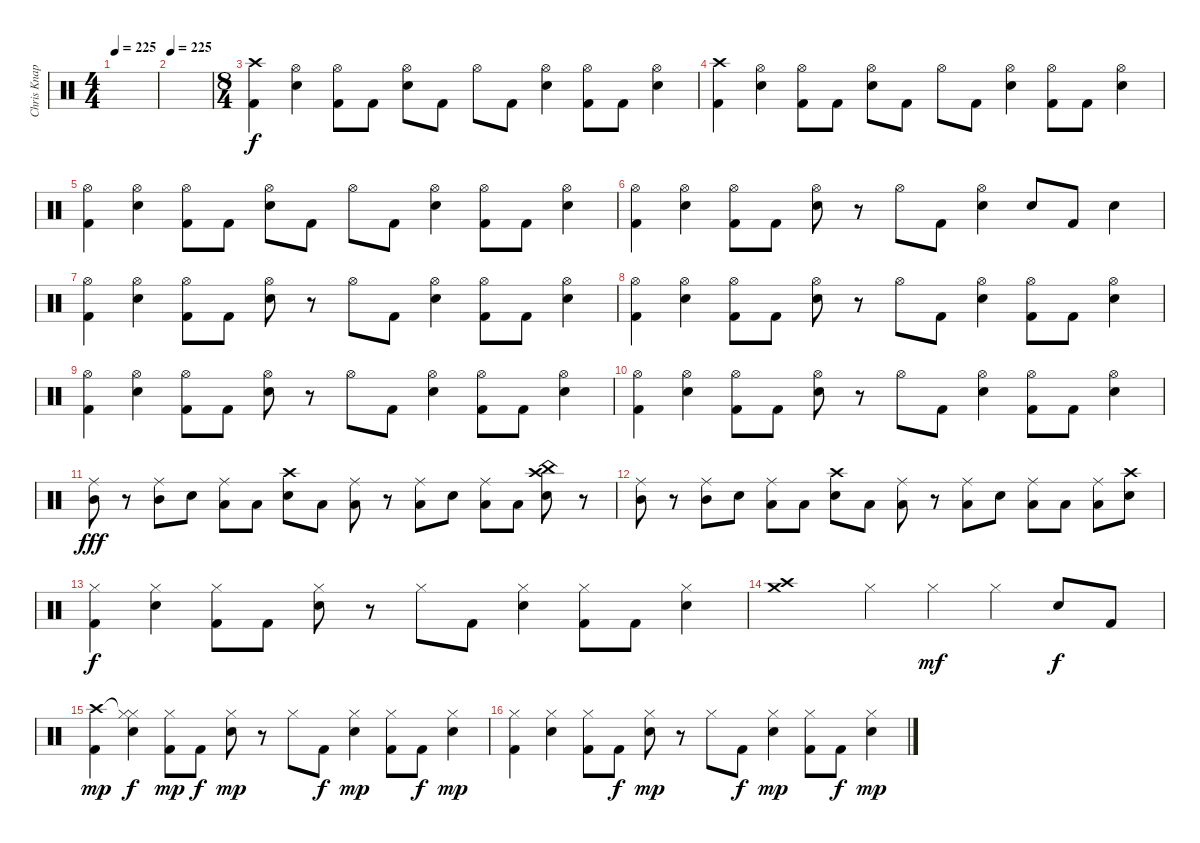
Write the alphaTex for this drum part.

\track ("Chris Knapp" "Chris Knap") {instrument percussion}
\staff {score}
\articulation defaults
\ts (4 4)
\tempo 225
\tempo 110
\tempo 225
\clef neutral
\ks c
|
\tempo 225
|
\ts (8 4)
("Crash high (hit)" "Kick (hit) 2").4 ("Hi-Hat (open)" "Electric Snare (hit)").4 ("Hi-Hat (open)" "Kick (hit) 2").8 "Kick (hit) 2".8 ("Hi-Hat (open)" "Electric Snare (hit)").8 "Kick (hit) 2".8 "Hi-Hat (open)".8 "Kick (hit) 2".8 ("Hi-Hat (open)" "Electric Snare (hit)").4 ("Hi-Hat (open)" "Kick (hit) 2").8 "Kick (hit) 2".8 ("Hi-Hat (open)" "Electric Snare (hit)").4 |
("Crash high (hit)" "Kick (hit) 2").4 ("Hi-Hat (open)" "Electric Snare (hit)").4 ("Hi-Hat (open)" "Kick (hit) 2").8 "Kick (hit) 2".8 ("Hi-Hat (open)" "Electric Snare (hit)").8 "Kick (hit) 2".8 "Hi-Hat (open)".8 "Kick (hit) 2".8 ("Hi-Hat (open)" "Electric Snare (hit)").4 ("Hi-Hat (open)" "Kick (hit) 2").8 "Kick (hit) 2".8 ("Hi-Hat (open)" "Electric Snare (hit)").4 |
("Hi-Hat (open)" "Kick (hit) 2").4 ("Hi-Hat (open)" "Electric Snare (hit)").4 ("Hi-Hat (open)" "Kick (hit) 2").8 "Kick (hit) 2".8 ("Hi-Hat (open)" "Electric Snare (hit)").8 "Kick (hit) 2".8 "Hi-Hat (open)".8 "Kick (hit) 2".8 ("Hi-Hat (open)" "Electric Snare (hit)").4 ("Hi-Hat (open)" "Kick (hit) 2").8 "Kick (hit) 2".8 ("Hi-Hat (open)" "Electric Snare (hit)").4 |
("Hi-Hat (open)" "Kick (hit) 2").4 ("Hi-Hat (open)" "Electric Snare (hit)").4 ("Hi-Hat (open)" "Kick (hit) 2").8 "Kick (hit) 2".8 ("Hi-Hat (open)" "Electric Snare (hit)").8 r.8 "Hi-Hat (open)".8 "Kick (hit) 2".8 ("Hi-Hat (open)" "Electric Snare (hit)").4 "Electric Snare (hit)".8 "Kick (hit) 2".8 "Electric Snare (hit)".4 |
("Hi-Hat (open)" "Kick (hit) 2").4 ("Hi-Hat (open)" "Electric Snare (hit)").4 ("Hi-Hat (open)" "Kick (hit) 2").8 "Kick (hit) 2".8 ("Hi-Hat (open)" "Electric Snare (hit)").8 r.8 "Hi-Hat (open)".8 "Kick (hit) 2".8 ("Hi-Hat (open)" "Electric Snare (hit)").4 ("Hi-Hat (open)" "Kick (hit) 2").8 "Kick (hit) 2".8 ("Hi-Hat (open)" "Electric Snare (hit)").4 |
("Hi-Hat (open)" "Kick (hit) 2").4 ("Hi-Hat (open)" "Electric Snare (hit)").4 ("Hi-Hat (open)" "Kick (hit) 2").8 "Kick (hit) 2".8 ("Hi-Hat (open)" "Electric Snare (hit)").8 r.8 "Hi-Hat (open)".8 "Kick (hit) 2".8 ("Hi-Hat (open)" "Electric Snare (hit)").4 ("Hi-Hat (open)" "Kick (hit) 2").8 "Kick (hit) 2".8 ("Hi-Hat (open)" "Electric Snare (hit)").4 |
("Hi-Hat (open)" "Kick (hit) 2").4 ("Hi-Hat (open)" "Electric Snare (hit)").4 ("Hi-Hat (open)" "Kick (hit) 2").8 "Kick (hit) 2".8 ("Hi-Hat (open)" "Electric Snare (hit)").8 r.8 "Hi-Hat (open)".8 "Kick (hit) 2".8 ("Hi-Hat (open)" "Electric Snare (hit)").4 ("Hi-Hat (open)" "Kick (hit) 2").8 "Kick (hit) 2".8 ("Hi-Hat (open)" "Electric Snare (hit)").4 |
("Hi-Hat (open)" "Kick (hit) 2").4 ("Hi-Hat (open)" "Electric Snare (hit)").4 ("Hi-Hat (open)" "Kick (hit) 2").8 "Kick (hit) 2".8 ("Hi-Hat (open)" "Electric Snare (hit)").8 r.8 "Hi-Hat (open)".8 "Kick (hit) 2".8 ("Hi-Hat (open)" "Electric Snare (hit)").4 ("Hi-Hat (open)" "Kick (hit) 2").8 "Kick (hit) 2".8 ("Hi-Hat (open)" "Electric Snare (hit)").4 |
("Ride (middle)" "Mid Tom (hit)").8{dy fff} r.8 ("Ride (middle)" "Mid Tom (hit)").8 "Electric Snare (hit)".8 ("Ride (middle)" "Low Floor Tom (hit)").8 "Low Floor Tom (hit)".8 ("Crash high (hit)" "Electric Snare (hit)").8 "Low Floor Tom (hit)".8 ("Ride (middle)" "Low Floor Tom (hit)").8 r.8 ("Ride (middle)" "Low Floor Tom (hit)").8 "Electric Snare (hit)".8 ("Ride (middle)" "Low Floor Tom (hit)").8 "Low Floor Tom (hit)".8 ("China (hit)" "Electric Snare (hit)" "Crash high (hit)").8 r.8 |
("Ride (middle)" "Mid Tom (hit)").8 r.8 ("Ride (middle)" "Mid Tom (hit)").8 "Electric Snare (hit)".8 ("Ride (middle)" "Low Floor Tom (hit)").8 "Low Floor Tom (hit)".8 ("Crash high (hit)" "Electric Snare (hit)").8 "Low Floor Tom (hit)".8 ("Ride (middle)" "Low Floor Tom (hit)").8 r.8 ("Ride (middle)" "Low Floor Tom (hit)").8 "Electric Snare (hit)".8 ("Ride (middle)" "Low Floor Tom (hit)").8 "Low Floor Tom (hit)".8 ("Ride (middle)" "Low Floor Tom (hit)").8 ("Electric Snare (hit)" "Crash high (hit)").8 |
("Hi-Hat (closed)" "Kick (hit) 2").4{dy f} ("Hi-Hat (closed)" "Electric Snare (hit)").4 ("Hi-Hat (closed)" "Kick (hit) 2").8 "Kick (hit) 2".8 ("Hi-Hat (closed)" "Electric Snare (hit)").8 r.8 "Hi-Hat (closed)".8 "Kick (hit) 2".8 ("Hi-Hat (closed)" "Electric Snare (hit)").4 ("Hi-Hat (closed)" "Kick (hit) 2").8 "Kick (hit) 2".8 ("Hi-Hat (closed)" "Electric Snare (hit)").4 |
("Crash high (hit)" "Crash medium (hit)").1 "Hi-Hat (closed)".4 "Hi-Hat (closed)".4{dy mf} "Hi-Hat (closed)".4 "Electric Snare (hit)".8{dy f} "Kick (hit) 2".8 |
("Crash high (hit)" "Kick (hit) 2").4{dy mp} ("Hi-Hat (closed)"{t} "Electric Snare (hit)" "Hi-Hat (closed)").4{dy f} ("Hi-Hat (closed)" "Kick (hit) 2").8{dy mp} "Kick (hit) 2".8{dy f} ("Hi-Hat (closed)" "Electric Snare (hit)").8{dy mp} r.8 "Hi-Hat (closed)".8 "Kick (hit) 2".8{dy f} ("Hi-Hat (closed)" "Electric Snare (hit)").4{dy mp} ("Hi-Hat (closed)" "Kick (hit) 2").8 "Kick (hit) 2".8{dy f} ("Hi-Hat (closed)" "Electric Snare (hit)").4{dy mp} |
("Hi-Hat (closed)" "Kick (hit) 2").4 ("Hi-Hat (closed)" "Electric Snare (hit)").4 ("Hi-Hat (closed)" "Kick (hit) 2").8 "Kick (hit) 2".8{dy f} ("Hi-Hat (closed)" "Electric Snare (hit)").8{dy mp} r.8 "Hi-Hat (closed)".8 "Kick (hit) 2".8{dy f} ("Hi-Hat (closed)" "Electric Snare (hit)").4{dy mp} ("Hi-Hat (closed)" "Kick (hit) 2").8 "Kick (hit) 2".8{dy f} ("Hi-Hat (closed)" "Electric Snare (hit)").4{dy mp}
